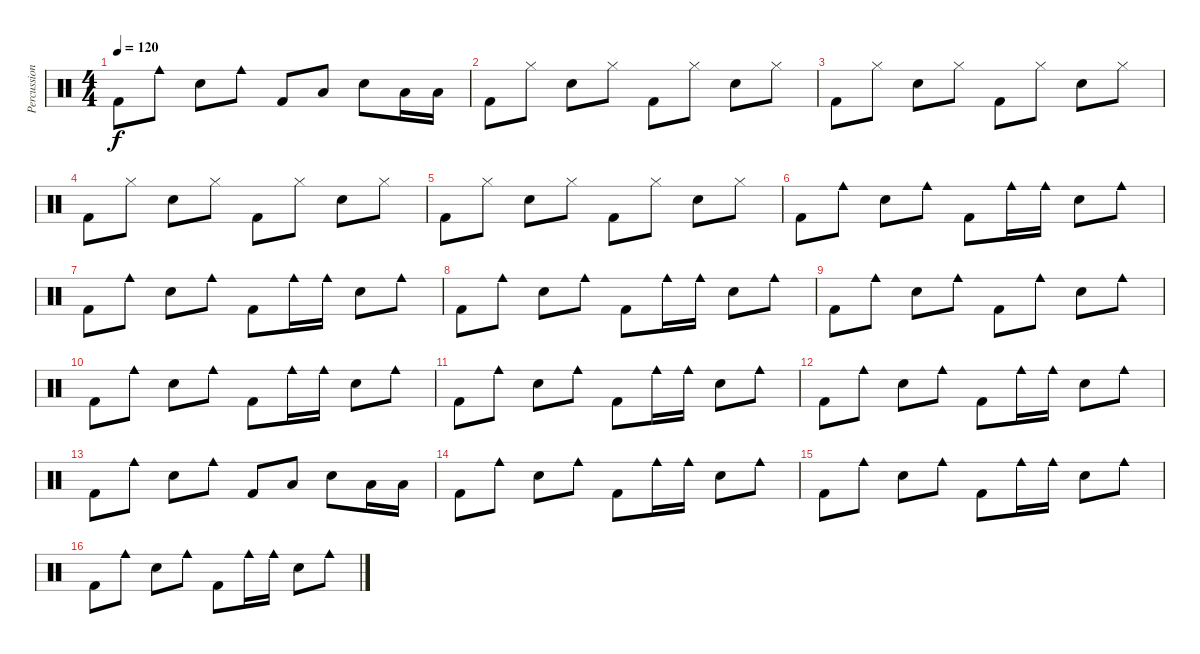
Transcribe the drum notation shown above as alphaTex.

\track ("Percussion" "Percussion") {instrument percussion}
\staff {score}
\articulation defaults
\ts (4 4)
\tempo 120
\clef neutral
\ks c "Kick (hit) 2".8{dy f} "Cowbell medium (hit)".8 "Electric Snare (hit)".8 "Cowbell medium (hit)".8 "Kick (hit) 2".8 "Low Floor Tom (hit)".8 "Electric Snare (hit)".8 "Low Floor Tom (hit)".16 "Low Floor Tom (hit)".16
|
"Kick (hit) 2".8 "Hi-Hat (closed)".8 "Electric Snare (hit)".8 "Hi-Hat (closed)".8 "Kick (hit) 2".8 "Hi-Hat (closed)".8 "Electric Snare (hit)".8 "Hi-Hat (closed)".8 |
"Kick (hit) 2".8 "Hi-Hat (closed)".8 "Electric Snare (hit)".8 "Hi-Hat (closed)".8 "Kick (hit) 2".8 "Hi-Hat (closed)".8 "Electric Snare (hit)".8 "Hi-Hat (closed)".8 |
"Kick (hit) 2".8 "Hi-Hat (closed)".8 "Electric Snare (hit)".8 "Hi-Hat (closed)".8 "Kick (hit) 2".8 "Hi-Hat (closed)".8 "Electric Snare (hit)".8 "Hi-Hat (closed)".8 |
"Kick (hit) 2".8 "Hi-Hat (closed)".8 "Electric Snare (hit)".8 "Hi-Hat (closed)".8 "Kick (hit) 2".8 "Hi-Hat (closed)".8 "Electric Snare (hit)".8 "Hi-Hat (closed)".8 |
"Kick (hit) 2".8 "Cowbell medium (hit)".8 "Electric Snare (hit)".8 "Cowbell medium (hit)".8 "Kick (hit) 2".8 "Cowbell medium (hit)".16 "Cowbell medium (hit)".16 "Electric Snare (hit)".8 "Cowbell medium (hit)".8 |
"Kick (hit) 2".8 "Cowbell medium (hit)".8 "Electric Snare (hit)".8 "Cowbell medium (hit)".8 "Kick (hit) 2".8 "Cowbell medium (hit)".16 "Cowbell medium (hit)".16 "Electric Snare (hit)".8 "Cowbell medium (hit)".8 |
"Kick (hit) 2".8 "Cowbell medium (hit)".8 "Electric Snare (hit)".8 "Cowbell medium (hit)".8 "Kick (hit) 2".8 "Cowbell medium (hit)".16 "Cowbell medium (hit)".16 "Electric Snare (hit)".8 "Cowbell medium (hit)".8 |
"Kick (hit) 2".8 "Cowbell medium (hit)".8 "Electric Snare (hit)".8 "Cowbell medium (hit)".8 "Kick (hit) 2".8 "Cowbell medium (hit)".8 "Electric Snare (hit)".8 "Cowbell medium (hit)".8 |
"Kick (hit) 2".8 "Cowbell medium (hit)".8 "Electric Snare (hit)".8 "Cowbell medium (hit)".8 "Kick (hit) 2".8 "Cowbell medium (hit)".16 "Cowbell medium (hit)".16 "Electric Snare (hit)".8 "Cowbell medium (hit)".8 |
"Kick (hit) 2".8 "Cowbell medium (hit)".8 "Electric Snare (hit)".8 "Cowbell medium (hit)".8 "Kick (hit) 2".8 "Cowbell medium (hit)".16 "Cowbell medium (hit)".16 "Electric Snare (hit)".8 "Cowbell medium (hit)".8 |
"Kick (hit) 2".8 "Cowbell medium (hit)".8 "Electric Snare (hit)".8 "Cowbell medium (hit)".8 "Kick (hit) 2".8 "Cowbell medium (hit)".16 "Cowbell medium (hit)".16 "Electric Snare (hit)".8 "Cowbell medium (hit)".8 |
"Kick (hit) 2".8 "Cowbell medium (hit)".8 "Electric Snare (hit)".8 "Cowbell medium (hit)".8 "Kick (hit) 2".8 "Low Floor Tom (hit)".8 "Electric Snare (hit)".8 "Low Floor Tom (hit)".16 "Low Floor Tom (hit)".16 |
"Kick (hit) 2".8 "Cowbell medium (hit)".8 "Electric Snare (hit)".8 "Cowbell medium (hit)".8 "Kick (hit) 2".8 "Cowbell medium (hit)".16 "Cowbell medium (hit)".16 "Electric Snare (hit)".8 "Cowbell medium (hit)".8 |
"Kick (hit) 2".8 "Cowbell medium (hit)".8 "Electric Snare (hit)".8 "Cowbell medium (hit)".8 "Kick (hit) 2".8 "Cowbell medium (hit)".16 "Cowbell medium (hit)".16 "Electric Snare (hit)".8 "Cowbell medium (hit)".8 |
"Kick (hit) 2".8 "Cowbell medium (hit)".8 "Electric Snare (hit)".8 "Cowbell medium (hit)".8 "Kick (hit) 2".8 "Cowbell medium (hit)".16 "Cowbell medium (hit)".16 "Electric Snare (hit)".8 "Cowbell medium (hit)".8
